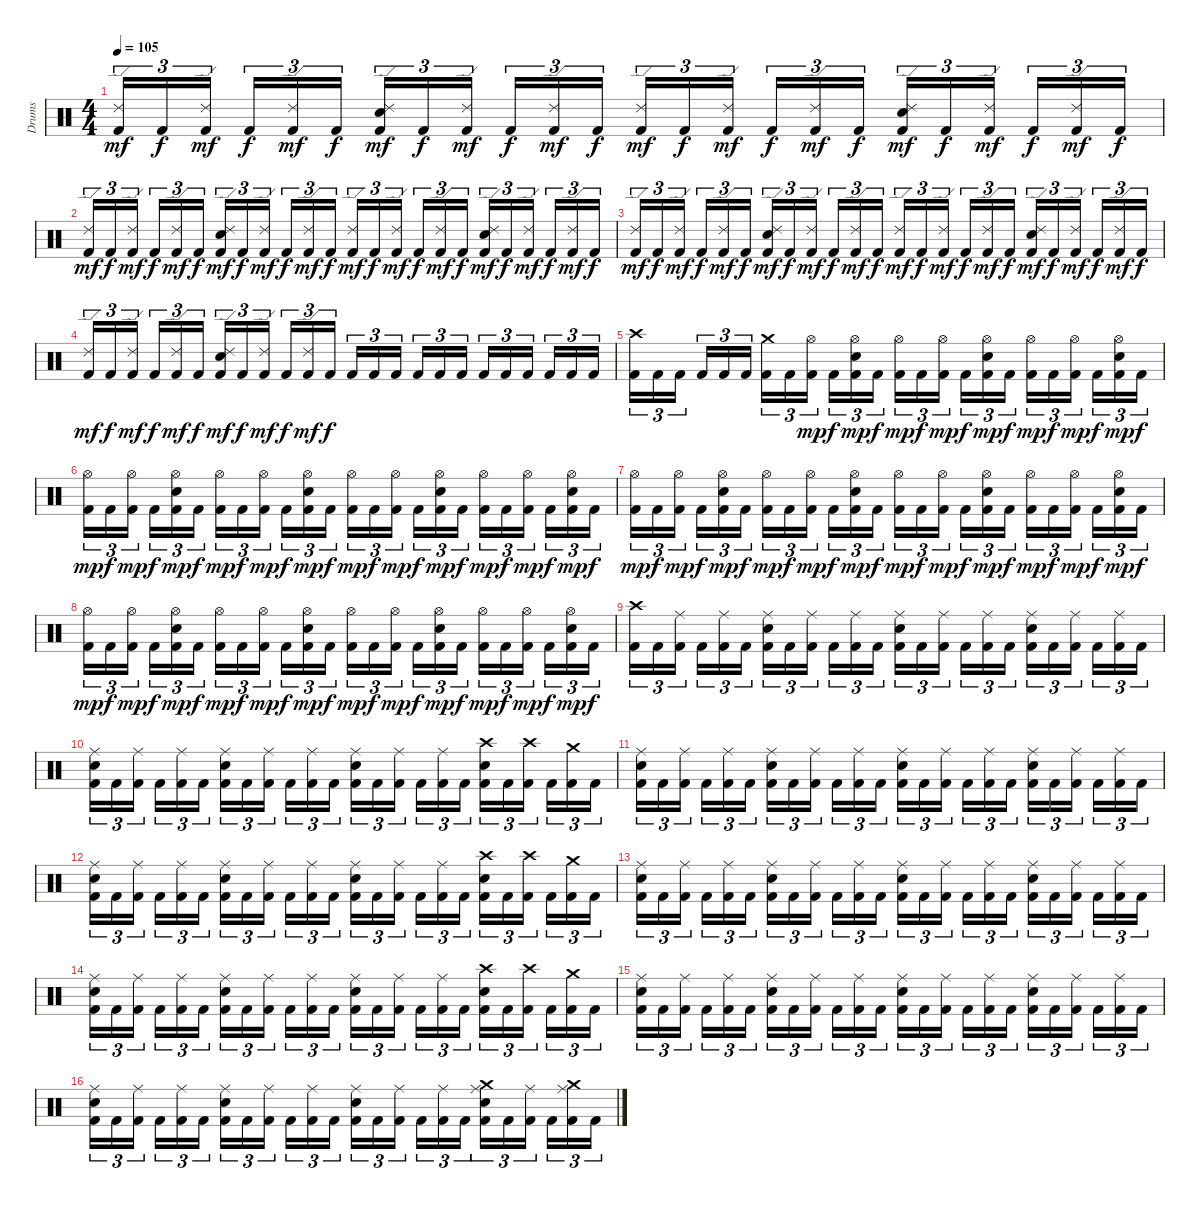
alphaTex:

\track ("Drums" "Drums") {instrument percussion}
\staff {score}
\articulation defaults
\ts (4 4)
\tempo 105
\clef neutral
\ks c
("Ride (edge) 2" "Kick (hit) 2").16{tu (3 2) dy mf} "Kick (hit) 2".16{tu (3 2) dy f} ("Ride (edge) 2" "Kick (hit) 2").16{tu (3 2) dy mf} "Kick (hit) 2".16{tu (3 2) dy f} ("Ride (edge) 2" "Kick (hit) 2").16{tu (3 2) dy mf} "Kick (hit) 2".16{tu (3 2) dy f} ("Ride (edge) 2" "Electric Snare (hit)" "Kick (hit) 2").16{tu (3 2) dy mf} "Kick (hit) 2".16{tu (3 2) dy f} ("Ride (edge) 2" "Kick (hit) 2").16{tu (3 2) dy mf} "Kick (hit) 2".16{tu (3 2) dy f} ("Ride (edge) 2" "Kick (hit) 2").16{tu (3 2) dy mf} "Kick (hit) 2".16{tu (3 2) dy f} ("Ride (edge) 2" "Kick (hit) 2").16{tu (3 2) dy mf} "Kick (hit) 2".16{tu (3 2) dy f} ("Ride (edge) 2" "Kick (hit) 2").16{tu (3 2) dy mf} "Kick (hit) 2".16{tu (3 2) dy f} ("Ride (edge) 2" "Kick (hit) 2").16{tu (3 2) dy mf} "Kick (hit) 2".16{tu (3 2) dy f} ("Ride (edge) 2" "Electric Snare (hit)" "Kick (hit) 2").16{tu (3 2) dy mf} "Kick (hit) 2".16{tu (3 2) dy f} ("Ride (edge) 2" "Kick (hit) 2").16{tu (3 2) dy mf} "Kick (hit) 2".16{tu (3 2) dy f} ("Ride (edge) 2" "Kick (hit) 2").16{tu (3 2) dy mf} "Kick (hit) 2".16{tu (3 2) dy f} |
("Ride (edge) 2" "Kick (hit) 2").16{tu (3 2) dy mf} "Kick (hit) 2".16{tu (3 2) dy f} ("Ride (edge) 2" "Kick (hit) 2").16{tu (3 2) dy mf} "Kick (hit) 2".16{tu (3 2) dy f} ("Ride (edge) 2" "Kick (hit) 2").16{tu (3 2) dy mf} "Kick (hit) 2".16{tu (3 2) dy f} ("Ride (edge) 2" "Electric Snare (hit)" "Kick (hit) 2").16{tu (3 2) dy mf} "Kick (hit) 2".16{tu (3 2) dy f} ("Ride (edge) 2" "Kick (hit) 2").16{tu (3 2) dy mf} "Kick (hit) 2".16{tu (3 2) dy f} ("Ride (edge) 2" "Kick (hit) 2").16{tu (3 2) dy mf} "Kick (hit) 2".16{tu (3 2) dy f} ("Ride (edge) 2" "Kick (hit) 2").16{tu (3 2) dy mf} "Kick (hit) 2".16{tu (3 2) dy f} ("Ride (edge) 2" "Kick (hit) 2").16{tu (3 2) dy mf} "Kick (hit) 2".16{tu (3 2) dy f} ("Ride (edge) 2" "Kick (hit) 2").16{tu (3 2) dy mf} "Kick (hit) 2".16{tu (3 2) dy f} ("Ride (edge) 2" "Electric Snare (hit)" "Kick (hit) 2").16{tu (3 2) dy mf} "Kick (hit) 2".16{tu (3 2) dy f} ("Ride (edge) 2" "Kick (hit) 2").16{tu (3 2) dy mf} "Kick (hit) 2".16{tu (3 2) dy f} ("Ride (edge) 2" "Kick (hit) 2").16{tu (3 2) dy mf} "Kick (hit) 2".16{tu (3 2) dy f} |
("Ride (edge) 2" "Kick (hit) 2").16{tu (3 2) dy mf} "Kick (hit) 2".16{tu (3 2) dy f} ("Ride (edge) 2" "Kick (hit) 2").16{tu (3 2) dy mf} "Kick (hit) 2".16{tu (3 2) dy f} ("Ride (edge) 2" "Kick (hit) 2").16{tu (3 2) dy mf} "Kick (hit) 2".16{tu (3 2) dy f} ("Ride (edge) 2" "Electric Snare (hit)" "Kick (hit) 2").16{tu (3 2) dy mf} "Kick (hit) 2".16{tu (3 2) dy f} ("Ride (edge) 2" "Kick (hit) 2").16{tu (3 2) dy mf} "Kick (hit) 2".16{tu (3 2) dy f} ("Ride (edge) 2" "Kick (hit) 2").16{tu (3 2) dy mf} "Kick (hit) 2".16{tu (3 2) dy f} ("Ride (edge) 2" "Kick (hit) 2").16{tu (3 2) dy mf} "Kick (hit) 2".16{tu (3 2) dy f} ("Ride (edge) 2" "Kick (hit) 2").16{tu (3 2) dy mf} "Kick (hit) 2".16{tu (3 2) dy f} ("Ride (edge) 2" "Kick (hit) 2").16{tu (3 2) dy mf} "Kick (hit) 2".16{tu (3 2) dy f} ("Ride (edge) 2" "Electric Snare (hit)" "Kick (hit) 2").16{tu (3 2) dy mf} "Kick (hit) 2".16{tu (3 2) dy f} ("Ride (edge) 2" "Kick (hit) 2").16{tu (3 2) dy mf} "Kick (hit) 2".16{tu (3 2) dy f} ("Ride (edge) 2" "Kick (hit) 2").16{tu (3 2) dy mf} "Kick (hit) 2".16{tu (3 2) dy f} |
("Ride (edge) 2" "Kick (hit) 2").16{tu (3 2) dy mf} "Kick (hit) 2".16{tu (3 2) dy f} ("Ride (edge) 2" "Kick (hit) 2").16{tu (3 2) dy mf} "Kick (hit) 2".16{tu (3 2) dy f} ("Ride (edge) 2" "Kick (hit) 2").16{tu (3 2) dy mf} "Kick (hit) 2".16{tu (3 2) dy f} ("Ride (edge) 2" "Electric Snare (hit)" "Kick (hit) 2").16{tu (3 2) dy mf} "Kick (hit) 2".16{tu (3 2) dy f} ("Ride (edge) 2" "Kick (hit) 2").16{tu (3 2) dy mf} "Kick (hit) 2".16{tu (3 2) dy f} ("Ride (edge) 2" "Kick (hit) 2").16{tu (3 2) dy mf} "Kick (hit) 2".16{tu (3 2) dy f} "Kick (hit) 2".16{tu (3 2)} "Kick (hit) 2".16{tu (3 2)} "Kick (hit) 2".16{tu (3 2)} "Kick (hit) 2".16{tu (3 2)} "Kick (hit) 2".16{tu (3 2)} "Kick (hit) 2".16{tu (3 2)} "Kick (hit) 2".16{tu (3 2)} "Kick (hit) 2".16{tu (3 2)} "Kick (hit) 2".16{tu (3 2)} "Kick (hit) 2".16{tu (3 2)} "Kick (hit) 2".16{tu (3 2)} "Kick (hit) 2".16{tu (3 2)} |
("Crash high (hit)" "Kick (hit) 2").16{tu (3 2)} "Kick (hit) 2".16{tu (3 2)} "Kick (hit) 2".16{tu (3 2)} "Kick (hit) 2".16{tu (3 2)} "Kick (hit) 2".16{tu (3 2)} "Kick (hit) 2".16{tu (3 2)} ("Crash medium (hit)" "Kick (hit) 2").16{tu (3 2)} "Kick (hit) 2".16{tu (3 2)} ("Hi-Hat (open)" "Kick (hit) 2").16{tu (3 2) dy mp} "Kick (hit) 2".16{tu (3 2) dy f} ("Hi-Hat (open)" "Electric Snare (hit)" "Kick (hit) 2").16{tu (3 2) dy mp} "Kick (hit) 2".16{tu (3 2) dy f} ("Hi-Hat (open)" "Kick (hit) 2").16{tu (3 2) dy mp} "Kick (hit) 2".16{tu (3 2) dy f} ("Hi-Hat (open)" "Kick (hit) 2").16{tu (3 2) dy mp} "Kick (hit) 2".16{tu (3 2) dy f} ("Hi-Hat (open)" "Electric Snare (hit)" "Kick (hit) 2").16{tu (3 2) dy mp} "Kick (hit) 2".16{tu (3 2) dy f} ("Hi-Hat (open)" "Kick (hit) 2").16{tu (3 2) dy mp} "Kick (hit) 2".16{tu (3 2) dy f} ("Hi-Hat (open)" "Kick (hit) 2").16{tu (3 2) dy mp} "Kick (hit) 2".16{tu (3 2) dy f} ("Hi-Hat (open)" "Electric Snare (hit)" "Kick (hit) 2").16{tu (3 2) dy mp} "Kick (hit) 2".16{tu (3 2) dy f} |
("Hi-Hat (open)" "Kick (hit) 2").16{tu (3 2) dy mp} "Kick (hit) 2".16{tu (3 2) dy f} ("Hi-Hat (open)" "Kick (hit) 2").16{tu (3 2) dy mp} "Kick (hit) 2".16{tu (3 2) dy f} ("Hi-Hat (open)" "Electric Snare (hit)" "Kick (hit) 2").16{tu (3 2) dy mp} "Kick (hit) 2".16{tu (3 2) dy f} ("Hi-Hat (open)" "Kick (hit) 2").16{tu (3 2) dy mp} "Kick (hit) 2".16{tu (3 2) dy f} ("Hi-Hat (open)" "Kick (hit) 2").16{tu (3 2) dy mp} "Kick (hit) 2".16{tu (3 2) dy f} ("Hi-Hat (open)" "Electric Snare (hit)" "Kick (hit) 2").16{tu (3 2) dy mp} "Kick (hit) 2".16{tu (3 2) dy f} ("Hi-Hat (open)" "Kick (hit) 2").16{tu (3 2) dy mp} "Kick (hit) 2".16{tu (3 2) dy f} ("Hi-Hat (open)" "Kick (hit) 2").16{tu (3 2) dy mp} "Kick (hit) 2".16{tu (3 2) dy f} ("Hi-Hat (open)" "Electric Snare (hit)" "Kick (hit) 2").16{tu (3 2) dy mp} "Kick (hit) 2".16{tu (3 2) dy f} ("Hi-Hat (open)" "Kick (hit) 2").16{tu (3 2) dy mp} "Kick (hit) 2".16{tu (3 2) dy f} ("Hi-Hat (open)" "Kick (hit) 2").16{tu (3 2) dy mp} "Kick (hit) 2".16{tu (3 2) dy f} ("Hi-Hat (open)" "Electric Snare (hit)" "Kick (hit) 2").16{tu (3 2) dy mp} "Kick (hit) 2".16{tu (3 2) dy f} |
("Hi-Hat (open)" "Kick (hit) 2").16{tu (3 2) dy mp} "Kick (hit) 2".16{tu (3 2) dy f} ("Hi-Hat (open)" "Kick (hit) 2").16{tu (3 2) dy mp} "Kick (hit) 2".16{tu (3 2) dy f} ("Hi-Hat (open)" "Electric Snare (hit)" "Kick (hit) 2").16{tu (3 2) dy mp} "Kick (hit) 2".16{tu (3 2) dy f} ("Hi-Hat (open)" "Kick (hit) 2").16{tu (3 2) dy mp} "Kick (hit) 2".16{tu (3 2) dy f} ("Hi-Hat (open)" "Kick (hit) 2").16{tu (3 2) dy mp} "Kick (hit) 2".16{tu (3 2) dy f} ("Hi-Hat (open)" "Electric Snare (hit)" "Kick (hit) 2").16{tu (3 2) dy mp} "Kick (hit) 2".16{tu (3 2) dy f} ("Hi-Hat (open)" "Kick (hit) 2").16{tu (3 2) dy mp} "Kick (hit) 2".16{tu (3 2) dy f} ("Hi-Hat (open)" "Kick (hit) 2").16{tu (3 2) dy mp} "Kick (hit) 2".16{tu (3 2) dy f} ("Hi-Hat (open)" "Electric Snare (hit)" "Kick (hit) 2").16{tu (3 2) dy mp} "Kick (hit) 2".16{tu (3 2) dy f} ("Hi-Hat (open)" "Kick (hit) 2").16{tu (3 2) dy mp} "Kick (hit) 2".16{tu (3 2) dy f} ("Hi-Hat (open)" "Kick (hit) 2").16{tu (3 2) dy mp} "Kick (hit) 2".16{tu (3 2) dy f} ("Hi-Hat (open)" "Electric Snare (hit)" "Kick (hit) 2").16{tu (3 2) dy mp} "Kick (hit) 2".16{tu (3 2) dy f} |
("Hi-Hat (open)" "Kick (hit) 2").16{tu (3 2) dy mp} "Kick (hit) 2".16{tu (3 2) dy f} ("Hi-Hat (open)" "Kick (hit) 2").16{tu (3 2) dy mp} "Kick (hit) 2".16{tu (3 2) dy f} ("Hi-Hat (open)" "Electric Snare (hit)" "Kick (hit) 2").16{tu (3 2) dy mp} "Kick (hit) 2".16{tu (3 2) dy f} ("Hi-Hat (open)" "Kick (hit) 2").16{tu (3 2) dy mp} "Kick (hit) 2".16{tu (3 2) dy f} ("Hi-Hat (open)" "Kick (hit) 2").16{tu (3 2) dy mp} "Kick (hit) 2".16{tu (3 2) dy f} ("Hi-Hat (open)" "Electric Snare (hit)" "Kick (hit) 2").16{tu (3 2) dy mp} "Kick (hit) 2".16{tu (3 2) dy f} ("Hi-Hat (open)" "Kick (hit) 2").16{tu (3 2) dy mp} "Kick (hit) 2".16{tu (3 2) dy f} ("Hi-Hat (open)" "Kick (hit) 2").16{tu (3 2) dy mp} "Kick (hit) 2".16{tu (3 2) dy f} ("Hi-Hat (open)" "Electric Snare (hit)" "Kick (hit) 2").16{tu (3 2) dy mp} "Kick (hit) 2".16{tu (3 2) dy f} ("Hi-Hat (open)" "Kick (hit) 2").16{tu (3 2) dy mp} "Kick (hit) 2".16{tu (3 2) dy f} ("Hi-Hat (open)" "Kick (hit) 2").16{tu (3 2) dy mp} "Kick (hit) 2".16{tu (3 2) dy f} ("Hi-Hat (open)" "Electric Snare (hit)" "Kick (hit) 2").16{tu (3 2) dy mp} "Kick (hit) 2".16{tu (3 2) dy f} |
("Crash high (hit)" "Kick (hit) 2").16{tu (3 2)} "Kick (hit) 2".16{tu (3 2)} ("Ride (middle)" "Kick (hit) 2").16{tu (3 2)} "Kick (hit) 2".16{tu (3 2)} ("Ride (middle)" "Kick (hit) 2").16{tu (3 2)} "Kick (hit) 2".16{tu (3 2)} ("Ride (middle)" "Electric Snare (hit)" "Kick (hit) 2").16{tu (3 2)} "Kick (hit) 2".16{tu (3 2)} ("Ride (middle)" "Kick (hit) 2").16{tu (3 2)} "Kick (hit) 2".16{tu (3 2)} ("Ride (middle)" "Kick (hit) 2").16{tu (3 2)} "Kick (hit) 2".16{tu (3 2)} ("Ride (middle)" "Electric Snare (hit)" "Kick (hit) 2").16{tu (3 2)} "Kick (hit) 2".16{tu (3 2)} ("Ride (middle)" "Kick (hit) 2").16{tu (3 2)} "Kick (hit) 2".16{tu (3 2)} ("Ride (middle)" "Kick (hit) 2").16{tu (3 2)} "Kick (hit) 2".16{tu (3 2)} ("Ride (middle)" "Electric Snare (hit)" "Kick (hit) 2").16{tu (3 2)} "Kick (hit) 2".16{tu (3 2)} ("Ride (middle)" "Kick (hit) 2").16{tu (3 2)} "Kick (hit) 2".16{tu (3 2)} ("Ride (middle)" "Kick (hit) 2").16{tu (3 2)} "Kick (hit) 2".16{tu (3 2)} |
("Ride (middle)" "Electric Snare (hit)" "Kick (hit) 2").16{tu (3 2)} "Kick (hit) 2".16{tu (3 2)} ("Ride (middle)" "Kick (hit) 2").16{tu (3 2)} "Kick (hit) 2".16{tu (3 2)} ("Ride (middle)" "Kick (hit) 2").16{tu (3 2)} "Kick (hit) 2".16{tu (3 2)} ("Ride (middle)" "Electric Snare (hit)" "Kick (hit) 2").16{tu (3 2)} "Kick (hit) 2".16{tu (3 2)} ("Ride (middle)" "Kick (hit) 2").16{tu (3 2)} "Kick (hit) 2".16{tu (3 2)} ("Ride (middle)" "Kick (hit) 2").16{tu (3 2)} "Kick (hit) 2".16{tu (3 2)} ("Ride (middle)" "Electric Snare (hit)" "Kick (hit) 2").16{tu (3 2)} "Kick (hit) 2".16{tu (3 2)} ("Ride (middle)" "Kick (hit) 2").16{tu (3 2)} "Kick (hit) 2".16{tu (3 2)} ("Ride (middle)" "Kick (hit) 2").16{tu (3 2)} "Kick (hit) 2".16{tu (3 2)} ("Crash high (hit)" "Electric Snare (hit)" "Kick (hit) 2").16{tu (3 2)} "Kick (hit) 2".16{tu (3 2)} ("Crash high (hit)" "Kick (hit) 2").16{tu (3 2)} "Kick (hit) 2".16{tu (3 2)} ("Crash medium (hit)" "Kick (hit) 2").16{tu (3 2)} "Kick (hit) 2".16{tu (3 2)} |
("Ride (middle)" "Electric Snare (hit)" "Kick (hit) 2").16{tu (3 2)} "Kick (hit) 2".16{tu (3 2)} ("Ride (middle)" "Kick (hit) 2").16{tu (3 2)} "Kick (hit) 2".16{tu (3 2)} ("Ride (middle)" "Kick (hit) 2").16{tu (3 2)} "Kick (hit) 2".16{tu (3 2)} ("Ride (middle)" "Electric Snare (hit)" "Kick (hit) 2").16{tu (3 2)} "Kick (hit) 2".16{tu (3 2)} ("Ride (middle)" "Kick (hit) 2").16{tu (3 2)} "Kick (hit) 2".16{tu (3 2)} ("Ride (middle)" "Kick (hit) 2").16{tu (3 2)} "Kick (hit) 2".16{tu (3 2)} ("Ride (middle)" "Electric Snare (hit)" "Kick (hit) 2").16{tu (3 2)} "Kick (hit) 2".16{tu (3 2)} ("Ride (middle)" "Kick (hit) 2").16{tu (3 2)} "Kick (hit) 2".16{tu (3 2)} ("Ride (middle)" "Kick (hit) 2").16{tu (3 2)} "Kick (hit) 2".16{tu (3 2)} ("Ride (middle)" "Electric Snare (hit)" "Kick (hit) 2").16{tu (3 2)} "Kick (hit) 2".16{tu (3 2)} ("Ride (middle)" "Kick (hit) 2").16{tu (3 2)} "Kick (hit) 2".16{tu (3 2)} ("Ride (middle)" "Kick (hit) 2").16{tu (3 2)} "Kick (hit) 2".16{tu (3 2)} |
("Ride (middle)" "Electric Snare (hit)" "Kick (hit) 2").16{tu (3 2)} "Kick (hit) 2".16{tu (3 2)} ("Ride (middle)" "Kick (hit) 2").16{tu (3 2)} "Kick (hit) 2".16{tu (3 2)} ("Ride (middle)" "Kick (hit) 2").16{tu (3 2)} "Kick (hit) 2".16{tu (3 2)} ("Ride (middle)" "Electric Snare (hit)" "Kick (hit) 2").16{tu (3 2)} "Kick (hit) 2".16{tu (3 2)} ("Ride (middle)" "Kick (hit) 2").16{tu (3 2)} "Kick (hit) 2".16{tu (3 2)} ("Ride (middle)" "Kick (hit) 2").16{tu (3 2)} "Kick (hit) 2".16{tu (3 2)} ("Ride (middle)" "Electric Snare (hit)" "Kick (hit) 2").16{tu (3 2)} "Kick (hit) 2".16{tu (3 2)} ("Ride (middle)" "Kick (hit) 2").16{tu (3 2)} "Kick (hit) 2".16{tu (3 2)} ("Ride (middle)" "Kick (hit) 2").16{tu (3 2)} "Kick (hit) 2".16{tu (3 2)} ("Crash high (hit)" "Electric Snare (hit)" "Kick (hit) 2").16{tu (3 2)} "Kick (hit) 2".16{tu (3 2)} ("Crash high (hit)" "Kick (hit) 2").16{tu (3 2)} "Kick (hit) 2".16{tu (3 2)} ("Crash medium (hit)" "Kick (hit) 2").16{tu (3 2)} "Kick (hit) 2".16{tu (3 2)} |
("Ride (middle)" "Electric Snare (hit)" "Kick (hit) 2").16{tu (3 2)} "Kick (hit) 2".16{tu (3 2)} ("Ride (middle)" "Kick (hit) 2").16{tu (3 2)} "Kick (hit) 2".16{tu (3 2)} ("Ride (middle)" "Kick (hit) 2").16{tu (3 2)} "Kick (hit) 2".16{tu (3 2)} ("Ride (middle)" "Electric Snare (hit)" "Kick (hit) 2").16{tu (3 2)} "Kick (hit) 2".16{tu (3 2)} ("Ride (middle)" "Kick (hit) 2").16{tu (3 2)} "Kick (hit) 2".16{tu (3 2)} ("Ride (middle)" "Kick (hit) 2").16{tu (3 2)} "Kick (hit) 2".16{tu (3 2)} ("Ride (middle)" "Electric Snare (hit)" "Kick (hit) 2").16{tu (3 2)} "Kick (hit) 2".16{tu (3 2)} ("Ride (middle)" "Kick (hit) 2").16{tu (3 2)} "Kick (hit) 2".16{tu (3 2)} ("Ride (middle)" "Kick (hit) 2").16{tu (3 2)} "Kick (hit) 2".16{tu (3 2)} ("Ride (middle)" "Electric Snare (hit)" "Kick (hit) 2").16{tu (3 2)} "Kick (hit) 2".16{tu (3 2)} ("Ride (middle)" "Kick (hit) 2").16{tu (3 2)} "Kick (hit) 2".16{tu (3 2)} ("Ride (middle)" "Kick (hit) 2").16{tu (3 2)} "Kick (hit) 2".16{tu (3 2)} |
("Ride (middle)" "Electric Snare (hit)" "Kick (hit) 2").16{tu (3 2)} "Kick (hit) 2".16{tu (3 2)} ("Ride (middle)" "Kick (hit) 2").16{tu (3 2)} "Kick (hit) 2".16{tu (3 2)} ("Ride (middle)" "Kick (hit) 2").16{tu (3 2)} "Kick (hit) 2".16{tu (3 2)} ("Ride (middle)" "Electric Snare (hit)" "Kick (hit) 2").16{tu (3 2)} "Kick (hit) 2".16{tu (3 2)} ("Ride (middle)" "Kick (hit) 2").16{tu (3 2)} "Kick (hit) 2".16{tu (3 2)} ("Ride (middle)" "Kick (hit) 2").16{tu (3 2)} "Kick (hit) 2".16{tu (3 2)} ("Ride (middle)" "Electric Snare (hit)" "Kick (hit) 2").16{tu (3 2)} "Kick (hit) 2".16{tu (3 2)} ("Ride (middle)" "Kick (hit) 2").16{tu (3 2)} "Kick (hit) 2".16{tu (3 2)} ("Ride (middle)" "Kick (hit) 2").16{tu (3 2)} "Kick (hit) 2".16{tu (3 2)} ("Crash high (hit)" "Electric Snare (hit)" "Kick (hit) 2").16{tu (3 2)} "Kick (hit) 2".16{tu (3 2)} ("Crash high (hit)" "Kick (hit) 2").16{tu (3 2)} "Kick (hit) 2".16{tu (3 2)} ("Crash medium (hit)" "Kick (hit) 2").16{tu (3 2)} "Kick (hit) 2".16{tu (3 2)} |
("Ride (middle)" "Electric Snare (hit)" "Kick (hit) 2").16{tu (3 2)} "Kick (hit) 2".16{tu (3 2)} ("Ride (middle)" "Kick (hit) 2").16{tu (3 2)} "Kick (hit) 2".16{tu (3 2)} ("Ride (middle)" "Kick (hit) 2").16{tu (3 2)} "Kick (hit) 2".16{tu (3 2)} ("Ride (middle)" "Electric Snare (hit)" "Kick (hit) 2").16{tu (3 2)} "Kick (hit) 2".16{tu (3 2)} ("Ride (middle)" "Kick (hit) 2").16{tu (3 2)} "Kick (hit) 2".16{tu (3 2)} ("Ride (middle)" "Kick (hit) 2").16{tu (3 2)} "Kick (hit) 2".16{tu (3 2)} ("Ride (middle)" "Electric Snare (hit)" "Kick (hit) 2").16{tu (3 2)} "Kick (hit) 2".16{tu (3 2)} ("Ride (middle)" "Kick (hit) 2").16{tu (3 2)} "Kick (hit) 2".16{tu (3 2)} ("Ride (middle)" "Kick (hit) 2").16{tu (3 2)} "Kick (hit) 2".16{tu (3 2)} ("Ride (middle)" "Electric Snare (hit)" "Kick (hit) 2").16{tu (3 2)} "Kick (hit) 2".16{tu (3 2)} ("Ride (middle)" "Kick (hit) 2").16{tu (3 2)} "Kick (hit) 2".16{tu (3 2)} ("Ride (middle)" "Kick (hit) 2").16{tu (3 2)} "Kick (hit) 2".16{tu (3 2)} |
("Ride (middle)" "Electric Snare (hit)" "Kick (hit) 2").16{tu (3 2)} "Kick (hit) 2".16{tu (3 2)} ("Ride (middle)" "Kick (hit) 2").16{tu (3 2)} "Kick (hit) 2".16{tu (3 2)} ("Ride (middle)" "Kick (hit) 2").16{tu (3 2)} "Kick (hit) 2".16{tu (3 2)} ("Ride (middle)" "Electric Snare (hit)" "Kick (hit) 2").16{tu (3 2)} "Kick (hit) 2".16{tu (3 2)} ("Ride (middle)" "Kick (hit) 2").16{tu (3 2)} "Kick (hit) 2".16{tu (3 2)} ("Ride (middle)" "Kick (hit) 2").16{tu (3 2)} "Kick (hit) 2".16{tu (3 2)} ("Ride (middle)" "Electric Snare (hit)" "Kick (hit) 2").16{tu (3 2)} "Kick (hit) 2".16{tu (3 2)} ("Ride (middle)" "Kick (hit) 2").16{tu (3 2)} "Kick (hit) 2".16{tu (3 2)} ("Ride (middle)" "Kick (hit) 2").16{tu (3 2)} "Kick (hit) 2".16{tu (3 2)} ("Crash medium (hit)" "Ride (middle)" "Electric Snare (hit)" "Kick (hit) 2").16{tu (3 2)} "Kick (hit) 2".16{tu (3 2)} ("Ride (middle)" "Kick (hit) 2").16{tu (3 2)} "Kick (hit) 2".16{tu (3 2)} ("Crash medium (hit)" "Ride (middle)" "Kick (hit) 2").16{tu (3 2)} "Kick (hit) 2".16{tu (3 2)}
